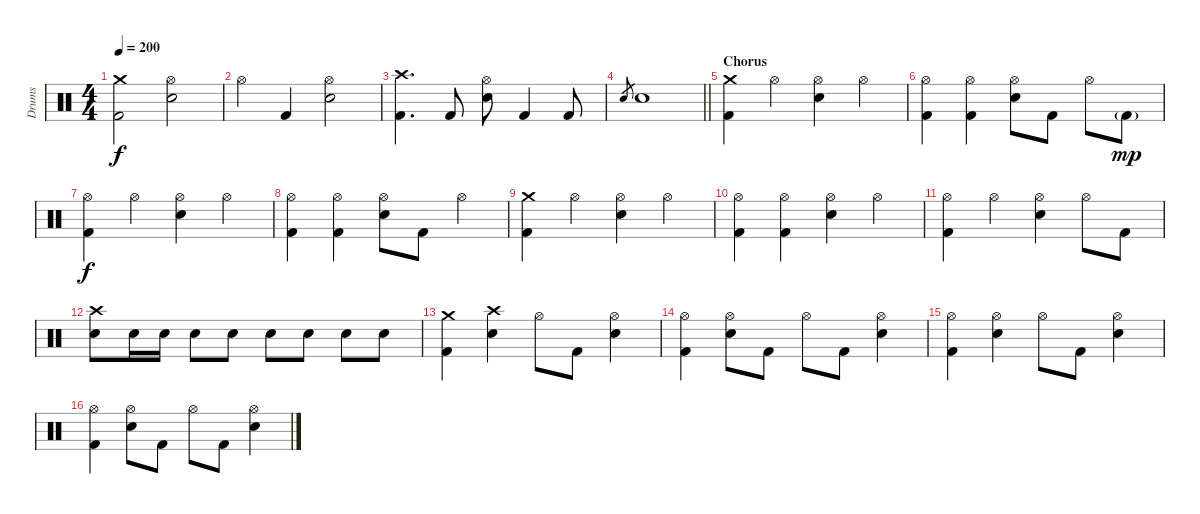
\track ("Drums" "Drums") {instrument percussion}
\staff {score}
\articulation defaults
\ts (4 4)
\tempo 200
\clef neutral
\ks c
("Crash medium (hit)" "Kick (hit) 2").2{dy f} ("Hi-Hat (open)" "Electric Snare (hit)").2 |
"Hi-Hat (open)".4 "Kick (hit) 2".4 ("Hi-Hat (open)" "Electric Snare (hit)").2 |
("Crash high (hit)" "Kick (hit) 2").4{d} "Kick (hit) 2".8 ("Hi-Hat (open)" "Electric Snare (hit)").8 "Kick (hit) 2".4 "Kick (hit) 2".8 |
\barLineRight lightlight "Electric Snare (hit)".8{gr} "Electric Snare (hit)".1
|
\section ("" "Chorus")
("Crash medium (hit)" "Kick (hit) 2").4 "Hi-Hat (open)".4 ("Hi-Hat (open)" "Electric Snare (hit)").4 "Hi-Hat (open)".4 |
("Hi-Hat (open)" "Kick (hit) 2").4 ("Hi-Hat (open)" "Kick (hit) 2").4 ("Hi-Hat (open)" "Electric Snare (hit)").8 "Kick (hit) 2".8 "Hi-Hat (open)".8 "Kick (hit) 2"{g}.8{dy mp} |
("Hi-Hat (open)" "Kick (hit) 2").4{dy f} "Hi-Hat (open)".4 ("Hi-Hat (open)" "Electric Snare (hit)").4 "Hi-Hat (open)".4 |
("Hi-Hat (open)" "Kick (hit) 2").4 ("Hi-Hat (open)" "Kick (hit) 2").4 ("Hi-Hat (open)" "Electric Snare (hit)").8 "Kick (hit) 2".8 "Hi-Hat (open)".4 |
("Crash medium (hit)" "Kick (hit) 2").4 "Hi-Hat (open)".4 ("Hi-Hat (open)" "Electric Snare (hit)").4 "Hi-Hat (open)".4 |
("Hi-Hat (open)" "Kick (hit) 2").4 ("Hi-Hat (open)" "Kick (hit) 2").4 ("Hi-Hat (open)" "Electric Snare (hit)").4 "Hi-Hat (open)".4 |
("Hi-Hat (open)" "Kick (hit) 2").4 "Hi-Hat (open)".4 ("Hi-Hat (open)" "Electric Snare (hit)").4 "Hi-Hat (open)".8 "Kick (hit) 2".8 |
("Crash high (hit)" "Electric Snare (hit)").8 "Electric Snare (hit)".16 "Electric Snare (hit)".16 "Electric Snare (hit)".8 "Electric Snare (hit)".8 "Electric Snare (hit)".8 "Electric Snare (hit)".8 "Electric Snare (hit)".8 "Electric Snare (hit)".8 |
("Crash medium (hit)" "Kick (hit) 2").4 ("Crash high (hit)" "Electric Snare (hit)").4 "Hi-Hat (open)".8 "Kick (hit) 2".8 ("Hi-Hat (open)" "Electric Snare (hit)").4 |
("Hi-Hat (open)" "Kick (hit) 2").4 ("Hi-Hat (open)" "Electric Snare (hit)").8 "Kick (hit) 2".8 "Hi-Hat (open)".8 "Kick (hit) 2".8 ("Hi-Hat (open)" "Electric Snare (hit)").4 |
("Hi-Hat (open)" "Kick (hit) 2").4 ("Hi-Hat (open)" "Electric Snare (hit)").4 "Hi-Hat (open)".8 "Kick (hit) 2".8 ("Hi-Hat (open)" "Electric Snare (hit)").4 |
("Hi-Hat (open)" "Kick (hit) 2").4 ("Hi-Hat (open)" "Electric Snare (hit)").8 "Kick (hit) 2".8 "Hi-Hat (open)".8 "Kick (hit) 2".8 ("Hi-Hat (open)" "Electric Snare (hit)").4
